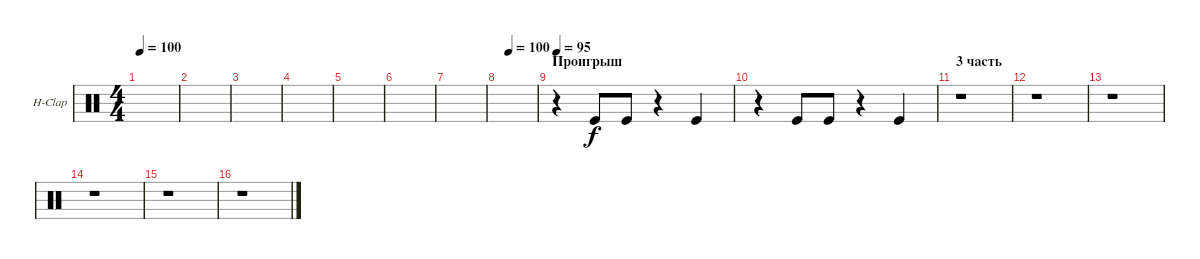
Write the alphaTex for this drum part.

\defaultSystemsLayout 4
\bracketExtendMode groupsimilarinstruments
\firstSystemTrackNameOrientation horizontal
\otherSystemsTrackNameOrientation horizontal
\track ("Hand Clap" "H-Clap") {instrument percussion}
\staff {score}
\articulation defaults
\ts (4 4)
\tempo 100
\clef neutral
\scale
0.5
\ks c
|
\scale
0.5 |
\scale
0.5 |
\scale
0.5 |
\scale
0.5 |
\scale
0.5 |
\scale
0.5 |
\tempo (100 0.25)
\scale
0.5 |
\section ("" "Проигрыш")
\tempo (95 0.00625)
\scale
0.5 r.4 "Kick (hit)".8 "Kick (hit)".8 r.4 "Kick (hit)".4 |
\scale
0.5 r.4 "Kick (hit)".8 "Kick (hit)".8 r.4 "Kick (hit)".4 |
\section ("" "3 часть")
\scale
0.5 r.1 |
\scale
0.5 r.1 |
\scale
0.5 r.1 |
\scale
0.5 r.1 |
\scale
0.5 r.1 |
\scale
0.5 r.1
